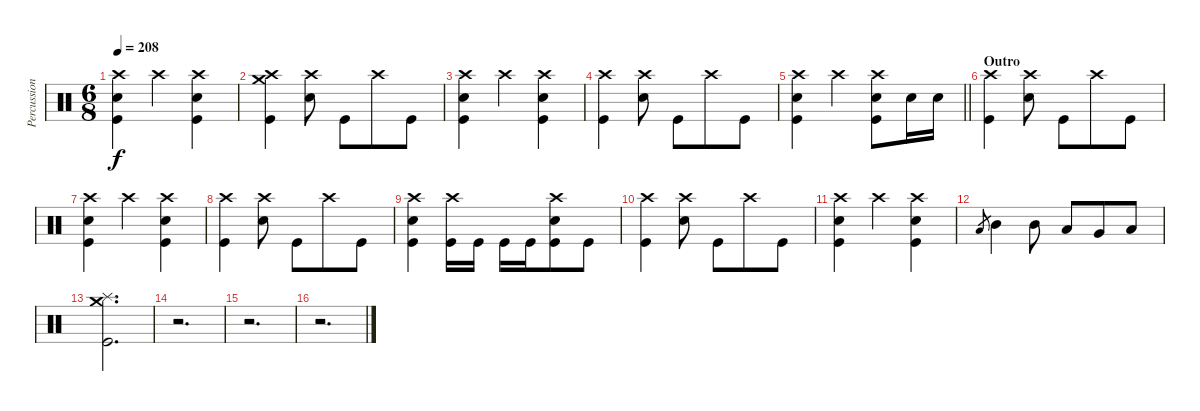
\track ("Percussion" "Percussion") {instrument percussion}
\staff {score}
\articulation defaults
\ts (6 8)
\tempo 208
\clef neutral
\ks c
("Crash high (hit)" "Electric Snare (hit)" "Kick (hit)").4{dy f} "Crash high (hit)".4 ("Crash high (hit)" "Electric Snare (hit)" "Kick (hit)").4 |
("Crash high (hit)" "Crash medium (hit)" "Kick (hit)").4 ("Crash high (hit)" "Electric Snare (hit)").8 "Kick (hit)".8 "Crash high (hit)".8 "Kick (hit)".8 |
("Crash high (hit)" "Electric Snare (hit)" "Kick (hit)").4 "Crash high (hit)".4 ("Crash high (hit)" "Electric Snare (hit)" "Kick (hit)").4 |
("Crash high (hit)" "Kick (hit)").4 ("Crash high (hit)" "Electric Snare (hit)").8 "Kick (hit)".8 "Crash high (hit)".8 "Kick (hit)".8 |
\barLineRight lightlight
("Crash high (hit)" "Electric Snare (hit)" "Kick (hit)").4 "Crash high (hit)".4 ("Crash high (hit)" "Electric Snare (hit)" "Kick (hit)").8 "Electric Snare (hit)".16 "Electric Snare (hit)".16 |
\section ("" "Outro")
("Crash high (hit)" "Kick (hit)").4 ("Crash high (hit)" "Electric Snare (hit)").8 "Kick (hit)".8 "Crash high (hit)".8 "Kick (hit)".8 |
("Crash high (hit)" "Electric Snare (hit)" "Kick (hit)").4 "Crash high (hit)".4 ("Crash high (hit)" "Electric Snare (hit)" "Kick (hit)").4 |
("Crash high (hit)" "Kick (hit)").4 ("Crash high (hit)" "Electric Snare (hit)").8 "Kick (hit)".8 "Crash high (hit)".8 "Kick (hit)".8 |
("Crash high (hit)" "Electric Snare (hit)" "Kick (hit)").4 ("Crash high (hit)" "Kick (hit)").16 "Kick (hit)".16 "Kick (hit)".16 "Kick (hit)".16 ("Crash high (hit)" "Electric Snare (hit)" "Kick (hit)").8 "Kick (hit)".8 |
("Crash high (hit)" "Kick (hit)").4 ("Crash high (hit)" "Electric Snare (hit)").8 "Kick (hit)".8 "Crash high (hit)".8 "Kick (hit)".8 |
("Crash high (hit)" "Electric Snare (hit)" "Kick (hit)").4 "Crash high (hit)".4 ("Crash high (hit)" "Electric Snare (hit)" "Kick (hit)").4 |
"Low Tom (hit)".8{gr} "Mid Tom (hit)".4 "Mid Tom (hit)".8 "Low Tom (hit)".8 "Very Low Tom (hit)".8 "Low Floor Tom (hit)".8 |
("Crash medium (hit)" "Splash (hit)" "Kick (hit)").2{d} |
r.2{d} |
r.2{d} |
r.2{d}
